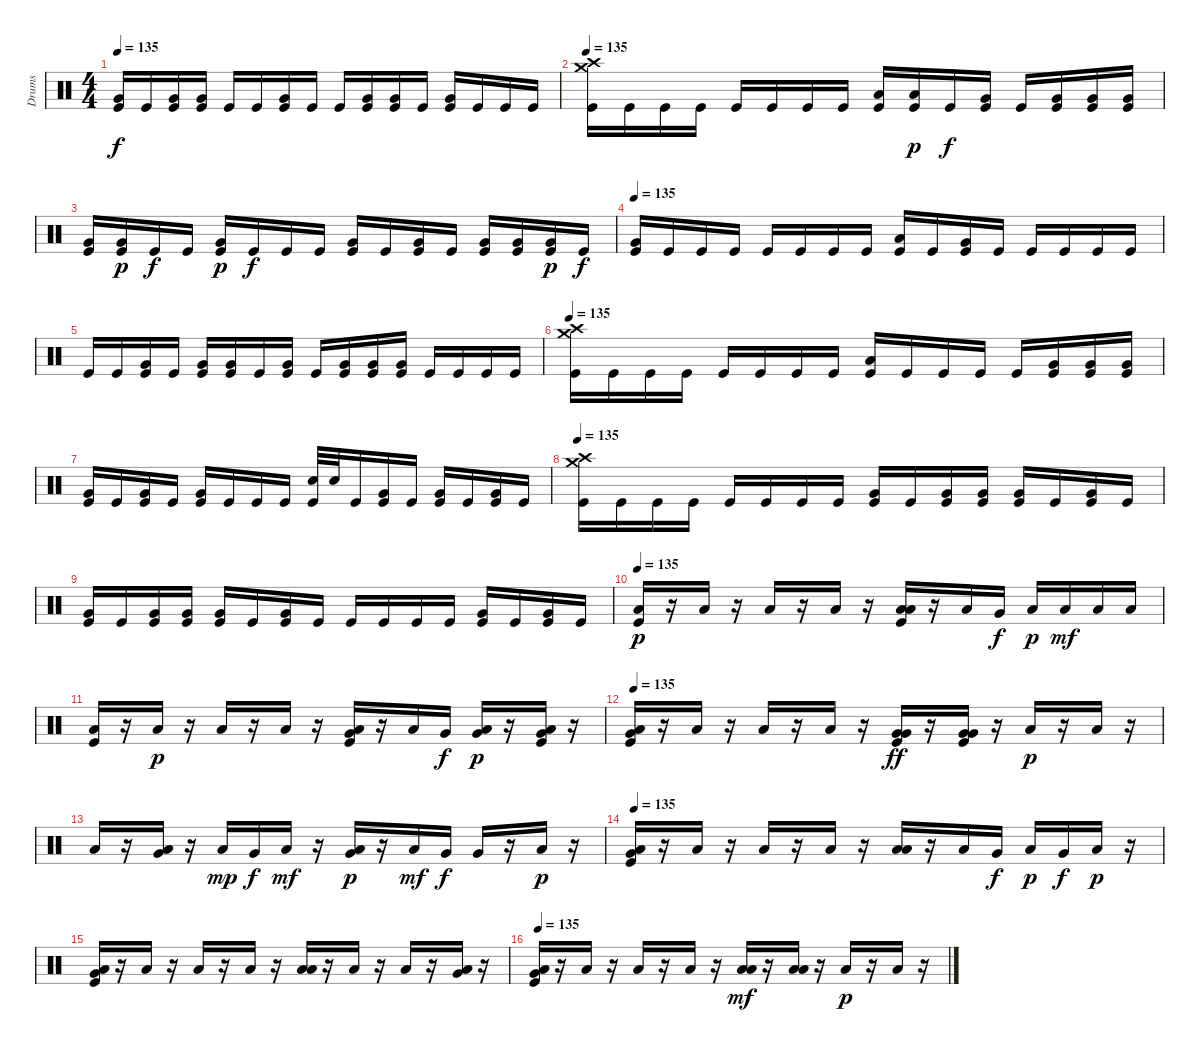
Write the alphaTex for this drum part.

\track ("Drums" "Drums") {instrument percussion}
\staff {score}
\articulation defaults
\ts (4 4)
\tempo 135
\clef neutral
\ks c
("Kick (hit)" "Very Low Tom (hit)").16{dy f} "Kick (hit)".16 ("Kick (hit)" "Very Low Tom (hit)").16 ("Kick (hit)" "Very Low Tom (hit)").16 "Kick (hit)".16 "Kick (hit)".16 ("Kick (hit)" "Very Low Tom (hit)").16 "Kick (hit)".16 "Kick (hit)".16 ("Kick (hit)" "Very Low Tom (hit)").16 ("Kick (hit)" "Very Low Tom (hit)").16 "Kick (hit)".16 ("Kick (hit)" "Very Low Tom (hit)").16 "Kick (hit)".16 "Kick (hit)".16 "Kick (hit)".16 |
\tempo 135
("Kick (hit)" "Crash high (hit)" "Crash medium (hit)").16 "Kick (hit)".16 "Kick (hit)".16 "Kick (hit)".16 "Kick (hit)".16 "Kick (hit)".16 "Kick (hit)".16 "Kick (hit)".16 ("Kick (hit)" "Low Tom (hit)").16 ("Kick (hit)" "Low Tom (hit)").16{dy p} "Kick (hit)".16{dy f} ("Kick (hit)" "Very Low Tom (hit)").16 "Kick (hit)".16 ("Kick (hit)" "Very Low Tom (hit)").16 ("Kick (hit)" "Very Low Tom (hit)").16 ("Kick (hit)" "Very Low Tom (hit)").16 |
("Kick (hit)" "Very Low Tom (hit)").16 ("Kick (hit)" "Very Low Tom (hit)").16{dy p} "Kick (hit)".16{dy f} "Kick (hit)".16 ("Kick (hit)" "Very Low Tom (hit)").16{dy p} "Kick (hit)".16{dy f} "Kick (hit)".16 "Kick (hit)".16 ("Kick (hit)" "Very Low Tom (hit)").16 "Kick (hit)".16 ("Kick (hit)" "Very Low Tom (hit)").16 "Kick (hit)".16 ("Kick (hit)" "Very Low Tom (hit)").16 ("Kick (hit)" "Very Low Tom (hit)").16 ("Kick (hit)" "Very Low Tom (hit)").16{dy p} "Kick (hit)".16{dy f} |
\tempo 135
("Kick (hit)" "Very Low Tom (hit)").16 "Kick (hit)".16 "Kick (hit)".16 "Kick (hit)".16 "Kick (hit)".16 "Kick (hit)".16 "Kick (hit)".16 "Kick (hit)".16 ("Kick (hit)" "Low Tom (hit)").16 "Kick (hit)".16 ("Kick (hit)" "Very Low Tom (hit)").16 "Kick (hit)".16 "Kick (hit)".16 "Kick (hit)".16 "Kick (hit)".16 "Kick (hit)".16 |
"Kick (hit)".16 "Kick (hit)".16 ("Kick (hit)" "Very Low Tom (hit)").16 "Kick (hit)".16 ("Kick (hit)" "Very Low Tom (hit)").16 ("Kick (hit)" "Very Low Tom (hit)").16 "Kick (hit)".16 ("Kick (hit)" "Very Low Tom (hit)").16 "Kick (hit)".16 ("Kick (hit)" "Very Low Tom (hit)").16 ("Kick (hit)" "Very Low Tom (hit)").16 ("Kick (hit)" "Very Low Tom (hit)").16 "Kick (hit)".16 "Kick (hit)".16 "Kick (hit)".16 "Kick (hit)".16 |
\tempo 135
("Kick (hit)" "Crash high (hit)" "Crash medium (hit)").16 "Kick (hit)".16 "Kick (hit)".16 "Kick (hit)".16 "Kick (hit)".16 "Kick (hit)".16 "Kick (hit)".16 "Kick (hit)".16 ("Kick (hit)" "Low Tom (hit)").16 "Kick (hit)".16 "Kick (hit)".16 "Kick (hit)".16 "Kick (hit)".16 ("Kick (hit)" "Very Low Tom (hit)").16 ("Kick (hit)" "Very Low Tom (hit)").16 ("Kick (hit)" "Very Low Tom (hit)").16 |
("Kick (hit)" "Very Low Tom (hit)").16 "Kick (hit)".16 ("Kick (hit)" "Very Low Tom (hit)").16 "Kick (hit)".16 ("Kick (hit)" "Very Low Tom (hit)").16 "Kick (hit)".16 "Kick (hit)".16 "Kick (hit)".16 ("Kick (hit)" "Electric Snare (hit)").32 "Electric Snare (hit)".32 "Kick (hit)".16 ("Kick (hit)" "Very Low Tom (hit)").16 "Kick (hit)".16 ("Kick (hit)" "Very Low Tom (hit)").16 "Kick (hit)".16 ("Kick (hit)" "Very Low Tom (hit)").16 "Kick (hit)".16 |
\tempo 135
("Kick (hit)" "Crash high (hit)" "Crash medium (hit)").16 "Kick (hit)".16 "Kick (hit)".16 "Kick (hit)".16 "Kick (hit)".16 "Kick (hit)".16 "Kick (hit)".16 "Kick (hit)".16 ("Kick (hit)" "Very Low Tom (hit)").16 "Kick (hit)".16 ("Kick (hit)" "Very Low Tom (hit)").16 ("Kick (hit)" "Very Low Tom (hit)").16 ("Kick (hit)" "Very Low Tom (hit)").16 "Kick (hit)".16 ("Kick (hit)" "Very Low Tom (hit)").16 "Kick (hit)".16 |
("Kick (hit)" "Very Low Tom (hit)").16 "Kick (hit)".16 ("Kick (hit)" "Very Low Tom (hit)").16 ("Kick (hit)" "Very Low Tom (hit)").16 ("Kick (hit)" "Very Low Tom (hit)").16 "Kick (hit)".16 ("Kick (hit)" "Very Low Tom (hit)").16 "Kick (hit)".16 "Kick (hit)".16 "Kick (hit)".16 "Kick (hit)".16 "Kick (hit)".16 ("Kick (hit)" "Very Low Tom (hit)").16 "Kick (hit)".16 ("Kick (hit)" "Very Low Tom (hit)").16 "Kick (hit)".16 |
\tempo 135
("Kick (hit)" "Low Floor Tom (hit)").16{dy p} r.16 "Low Floor Tom (hit)".16 r.16 "Low Floor Tom (hit)".16 r.16 "Low Floor Tom (hit)".16 r.16 ("Kick (hit)" "Low Floor Tom (hit)" "Low Tom (hit)").16 r.16 "Low Floor Tom (hit)".16 "Very Low Tom (hit)".16{dy f} "Low Floor Tom (hit)".16{dy p} "Low Floor Tom (hit)".16{dy mf} "Low Floor Tom (hit)".16 "Low Floor Tom (hit)".16 |
("Kick (hit)" "Low Floor Tom (hit)").16 r.16 "Low Floor Tom (hit)".16{dy p} r.16 "Low Floor Tom (hit)".16 r.16 "Low Floor Tom (hit)".16 r.16 ("Kick (hit)" "Low Floor Tom (hit)" "Very Low Tom (hit)").16 r.16 "Low Floor Tom (hit)".16 "Very Low Tom (hit)".16{dy f} ("Low Floor Tom (hit)" "Very Low Tom (hit)").16{dy p} r.16 ("Kick (hit)" "Low Floor Tom (hit)" "Very Low Tom (hit)").16 r.16 |
\tempo 135
("Kick (hit)" "Low Floor Tom (hit)" "Very Low Tom (hit)").16 r.16 "Low Floor Tom (hit)".16 r.16 "Low Floor Tom (hit)".16 r.16 "Low Floor Tom (hit)".16 r.16 ("Kick (hit)" "Very Low Tom (hit)" "Very Low Tom (hit)").16{dy ff} r.16 ("Kick (hit)" "Very Low Tom (hit)" "Very Low Tom (hit)").16 r.16 "Low Floor Tom (hit)".16{dy p} r.16 "Low Floor Tom (hit)".16 r.16 |
"Low Floor Tom (hit)".16 r.16 ("Low Floor Tom (hit)" "Very Low Tom (hit)").16 r.16 "Low Floor Tom (hit)".16{dy mp} "Very Low Tom (hit)".16{dy f} "Low Floor Tom (hit)".16{dy mf} r.16 ("Low Floor Tom (hit)" "Very Low Tom (hit)").16{dy p} r.16 "Low Floor Tom (hit)".16{dy mf} "Very Low Tom (hit)".16{dy f} "Very Low Tom (hit)".16 r.16 "Low Floor Tom (hit)".16{dy p} r.16 |
\tempo 135
("Kick (hit)" "Low Floor Tom (hit)" "Very Low Tom (hit)").16 r.16 "Low Floor Tom (hit)".16 r.16 "Low Floor Tom (hit)".16 r.16 "Low Floor Tom (hit)".16 r.16 ("Low Floor Tom (hit)" "Low Tom (hit)").16 r.16 "Low Floor Tom (hit)".16 "Very Low Tom (hit)".16{dy f} "Low Floor Tom (hit)".16{dy p} "Very Low Tom (hit)".16{dy f} "Low Floor Tom (hit)".16{dy p} r.16 |
("Kick (hit)" "Low Floor Tom (hit)" "Very Low Tom (hit)").16 r.16 "Low Floor Tom (hit)".16 r.16 "Low Floor Tom (hit)".16 r.16 "Low Floor Tom (hit)".16 r.16 ("Low Floor Tom (hit)" "Low Tom (hit)").16 r.16 "Low Floor Tom (hit)".16 r.16 "Low Floor Tom (hit)".16 r.16 ("Low Floor Tom (hit)" "Very Low Tom (hit)").16 r.16 |
\tempo 135
("Kick (hit)" "Low Floor Tom (hit)" "Very Low Tom (hit)").16 r.16 "Low Floor Tom (hit)".16 r.16 "Low Floor Tom (hit)".16 r.16 "Low Floor Tom (hit)".16 r.16 ("Low Floor Tom (hit)" "Low Tom (hit)").16{dy mf} r.16 ("Low Floor Tom (hit)" "Low Tom (hit)").16 r.16 "Low Floor Tom (hit)".16{dy p} r.16 "Low Floor Tom (hit)".16 r.16
